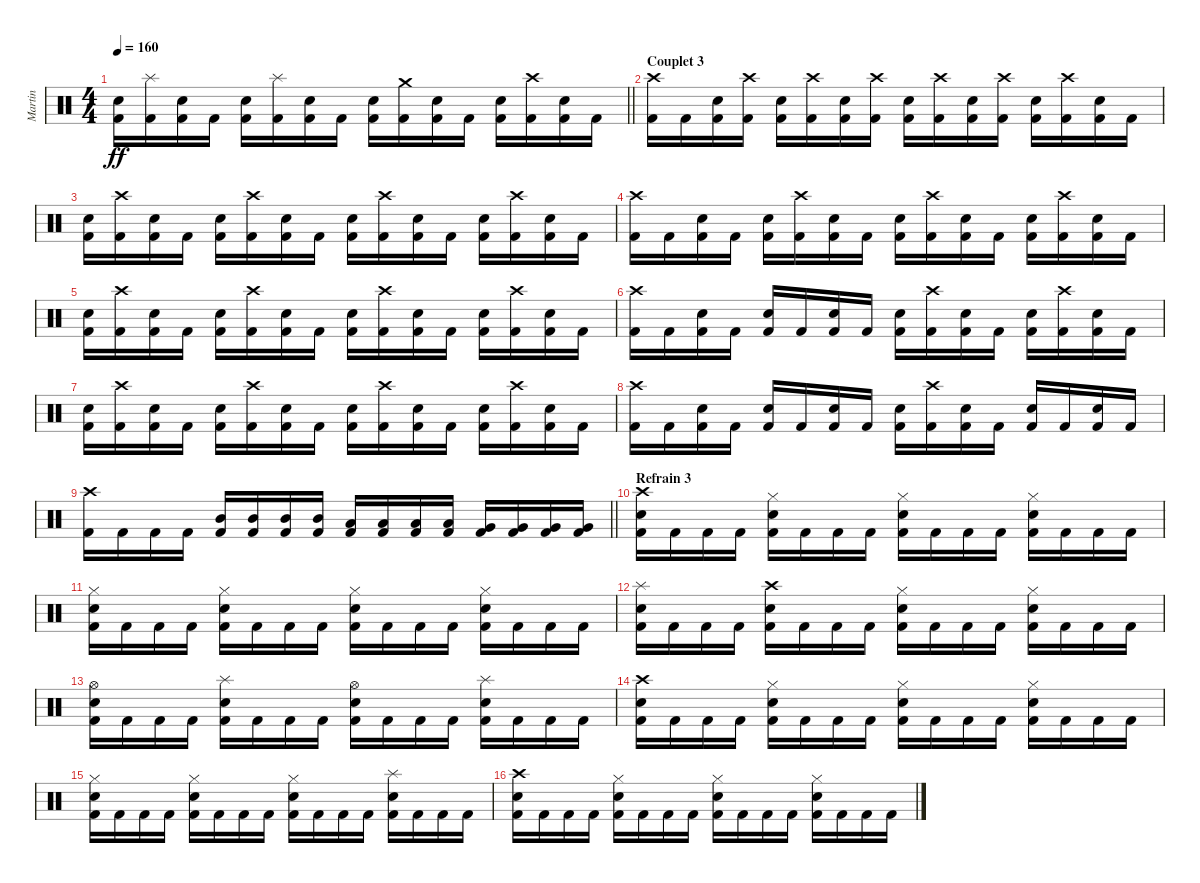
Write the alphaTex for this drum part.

\track ("Martin" "Martin") {instrument percussion}
\staff {score}
\articulation defaults
\ts (4 4)
\tempo 160
\clef neutral
\barLineRight lightlight
\ks c
("Electric Snare (hit)" "Kick (hit) 2").16{dy ff} ("Splash (hit)" "Kick (hit) 2").16 ("Electric Snare (hit)" "Kick (hit) 2").16 "Kick (hit) 2".16 ("Electric Snare (hit)" "Kick (hit) 2").16 ("Splash (hit)" "Kick (hit) 2").16 ("Electric Snare (hit)" "Kick (hit) 2").16 "Kick (hit) 2".16 ("Electric Snare (hit)" "Kick (hit) 2").16 ("Crash medium (hit)" "Kick (hit) 2").16 ("Electric Snare (hit)" "Kick (hit) 2").16 "Kick (hit) 2".16 ("Electric Snare (hit)" "Kick (hit) 2").16 ("Crash high (hit)" "Kick (hit) 2").16 ("Electric Snare (hit)" "Kick (hit) 2").16 "Kick (hit) 2".16 |
\section ("" "Couplet 3")
("Crash high (hit)" "Kick (hit) 2").16 "Kick (hit) 2".16 ("Electric Snare (hit)" "Kick (hit) 2").16 ("Crash high (hit)" "Kick (hit) 2").16 ("Electric Snare (hit)" "Kick (hit) 2").16 ("Crash high (hit)" "Kick (hit) 2").16 ("Electric Snare (hit)" "Kick (hit) 2").16 ("Crash high (hit)" "Kick (hit) 2").16 ("Electric Snare (hit)" "Kick (hit) 2").16 ("Crash high (hit)" "Kick (hit) 2").16 ("Electric Snare (hit)" "Kick (hit) 2").16 ("Crash high (hit)" "Kick (hit) 2").16 ("Electric Snare (hit)" "Kick (hit) 2").16 ("Crash high (hit)" "Kick (hit) 2").16 ("Electric Snare (hit)" "Kick (hit) 2").16 "Kick (hit) 2".16 |
("Electric Snare (hit)" "Kick (hit) 2").16 ("Crash high (hit)" "Kick (hit) 2").16 ("Electric Snare (hit)" "Kick (hit) 2").16 "Kick (hit) 2".16 ("Electric Snare (hit)" "Kick (hit) 2").16 ("Crash high (hit)" "Kick (hit) 2").16 ("Electric Snare (hit)" "Kick (hit) 2").16 "Kick (hit) 2".16 ("Electric Snare (hit)" "Kick (hit) 2").16 ("Crash high (hit)" "Kick (hit) 2").16 ("Electric Snare (hit)" "Kick (hit) 2").16 "Kick (hit) 2".16 ("Electric Snare (hit)" "Kick (hit) 2").16 ("Crash high (hit)" "Kick (hit) 2").16 ("Electric Snare (hit)" "Kick (hit) 2").16 "Kick (hit) 2".16 |
("Crash high (hit)" "Kick (hit) 2").16 "Kick (hit) 2".16 ("Electric Snare (hit)" "Kick (hit) 2").16 "Kick (hit) 2".16 ("Electric Snare (hit)" "Kick (hit) 2").16 ("Crash high (hit)" "Kick (hit) 2").16 ("Electric Snare (hit)" "Kick (hit) 2").16 "Kick (hit) 2".16 ("Electric Snare (hit)" "Kick (hit) 2").16 ("Crash high (hit)" "Kick (hit) 2").16 ("Electric Snare (hit)" "Kick (hit) 2").16 "Kick (hit) 2".16 ("Electric Snare (hit)" "Kick (hit) 2").16 ("Crash high (hit)" "Kick (hit) 2").16 ("Electric Snare (hit)" "Kick (hit) 2").16 "Kick (hit) 2".16 |
("Electric Snare (hit)" "Kick (hit) 2").16 ("Crash high (hit)" "Kick (hit) 2").16 ("Electric Snare (hit)" "Kick (hit) 2").16 "Kick (hit) 2".16 ("Electric Snare (hit)" "Kick (hit) 2").16 ("Crash high (hit)" "Kick (hit) 2").16 ("Electric Snare (hit)" "Kick (hit) 2").16 "Kick (hit) 2".16 ("Electric Snare (hit)" "Kick (hit) 2").16 ("Crash high (hit)" "Kick (hit) 2").16 ("Electric Snare (hit)" "Kick (hit) 2").16 "Kick (hit) 2".16 ("Electric Snare (hit)" "Kick (hit) 2").16 ("Crash high (hit)" "Kick (hit) 2").16 ("Electric Snare (hit)" "Kick (hit) 2").16 "Kick (hit) 2".16 |
("Crash high (hit)" "Kick (hit) 2").16 "Kick (hit) 2".16 ("Electric Snare (hit)" "Kick (hit) 2").16 "Kick (hit) 2".16 ("Electric Snare (hit)" "Kick (hit) 2").16 "Kick (hit) 2".16 ("Electric Snare (hit)" "Kick (hit) 2").16 "Kick (hit) 2".16 ("Electric Snare (hit)" "Kick (hit) 2").16 ("Crash high (hit)" "Kick (hit) 2").16 ("Electric Snare (hit)" "Kick (hit) 2").16 "Kick (hit) 2".16 ("Electric Snare (hit)" "Kick (hit) 2").16 ("Crash high (hit)" "Kick (hit) 2").16 ("Electric Snare (hit)" "Kick (hit) 2").16 "Kick (hit) 2".16 |
("Electric Snare (hit)" "Kick (hit) 2").16 ("Crash high (hit)" "Kick (hit) 2").16 ("Electric Snare (hit)" "Kick (hit) 2").16 "Kick (hit) 2".16 ("Electric Snare (hit)" "Kick (hit) 2").16 ("Crash high (hit)" "Kick (hit) 2").16 ("Electric Snare (hit)" "Kick (hit) 2").16 "Kick (hit) 2".16 ("Electric Snare (hit)" "Kick (hit) 2").16 ("Crash high (hit)" "Kick (hit) 2").16 ("Electric Snare (hit)" "Kick (hit) 2").16 "Kick (hit) 2".16 ("Electric Snare (hit)" "Kick (hit) 2").16 ("Crash high (hit)" "Kick (hit) 2").16 ("Electric Snare (hit)" "Kick (hit) 2").16 "Kick (hit) 2".16 |
("Crash high (hit)" "Kick (hit) 2").16 "Kick (hit) 2".16 ("Electric Snare (hit)" "Kick (hit) 2").16 "Kick (hit) 2".16 ("Electric Snare (hit)" "Kick (hit) 2").16 "Kick (hit) 2".16 ("Electric Snare (hit)" "Kick (hit) 2").16 "Kick (hit) 2".16 ("Electric Snare (hit)" "Kick (hit) 2").16 ("Crash high (hit)" "Kick (hit) 2").16 ("Electric Snare (hit)" "Kick (hit) 2").16 "Kick (hit) 2".16 ("Electric Snare (hit)" "Kick (hit) 2").16 "Kick (hit) 2".16 ("Electric Snare (hit)" "Kick (hit) 2").16 "Kick (hit) 2".16 |
\barLineRight lightlight
("Crash high (hit)" "Kick (hit) 2").16 "Kick (hit) 2".16 "Kick (hit) 2".16 "Kick (hit) 2".16 ("Mid Tom (hit)" "Kick (hit) 2").16 ("Mid Tom (hit)" "Kick (hit) 2").16 ("Mid Tom (hit)" "Kick (hit) 2").16 ("Mid Tom (hit)" "Kick (hit) 2").16 ("Low Tom (hit)" "Kick (hit) 2").16 ("Low Tom (hit)" "Kick (hit) 2").16 ("Low Tom (hit)" "Kick (hit) 2").16 ("Low Tom (hit)" "Kick (hit) 2").16 ("Very Low Tom (hit)" "Kick (hit) 2").16 ("Very Low Tom (hit)" "Kick (hit) 2").16 ("Very Low Tom (hit)" "Kick (hit) 2").16 ("Very Low Tom (hit)" "Kick (hit) 2").16 |
\section ("" "Refrain 3")
("Crash high (hit)" "Electric Snare (hit)" "Kick (hit) 2").16 "Kick (hit) 2".16 "Kick (hit) 2".16 "Kick (hit) 2".16 ("Hi-Hat (closed)" "Electric Snare (hit)" "Kick (hit) 2").16 "Kick (hit) 2".16 "Kick (hit) 2".16 "Kick (hit) 2".16 ("Hi-Hat (closed)" "Electric Snare (hit)" "Kick (hit) 2").16 "Kick (hit) 2".16 "Kick (hit) 2".16 "Kick (hit) 2".16 ("Hi-Hat (closed)" "Electric Snare (hit)" "Kick (hit) 2").16 "Kick (hit) 2".16 "Kick (hit) 2".16 "Kick (hit) 2".16 |
("Hi-Hat (closed)" "Electric Snare (hit)" "Kick (hit) 2").16 "Kick (hit) 2".16 "Kick (hit) 2".16 "Kick (hit) 2".16 ("Hi-Hat (closed)" "Electric Snare (hit)" "Kick (hit) 2").16 "Kick (hit) 2".16 "Kick (hit) 2".16 "Kick (hit) 2".16 ("Hi-Hat (closed)" "Electric Snare (hit)" "Kick (hit) 2").16 "Kick (hit) 2".16 "Kick (hit) 2".16 "Kick (hit) 2".16 ("Hi-Hat (closed)" "Electric Snare (hit)" "Kick (hit) 2").16 "Kick (hit) 2".16 "Kick (hit) 2".16 "Kick (hit) 2".16 |
("Splash (hit)" "Electric Snare (hit)" "Kick (hit) 2").16 "Kick (hit) 2".16 "Kick (hit) 2".16 "Kick (hit) 2".16 ("Crash high (hit)" "Electric Snare (hit)" "Kick (hit) 2").16 "Kick (hit) 2".16 "Kick (hit) 2".16 "Kick (hit) 2".16 ("Hi-Hat (closed)" "Electric Snare (hit)" "Kick (hit) 2").16 "Kick (hit) 2".16 "Kick (hit) 2".16 "Kick (hit) 2".16 ("Hi-Hat (closed)" "Electric Snare (hit)" "Kick (hit) 2").16 "Kick (hit) 2".16 "Kick (hit) 2".16 "Kick (hit) 2".16 |
("Hi-Hat (open)" "Electric Snare (hit)" "Kick (hit) 2").16 "Kick (hit) 2".16 "Kick (hit) 2".16 "Kick (hit) 2".16 ("Splash (hit)" "Electric Snare (hit)" "Kick (hit) 2").16 "Kick (hit) 2".16 "Kick (hit) 2".16 "Kick (hit) 2".16 ("Hi-Hat (open)" "Electric Snare (hit)" "Kick (hit) 2").16 "Kick (hit) 2".16 "Kick (hit) 2".16 "Kick (hit) 2".16 ("Splash (hit)" "Electric Snare (hit)" "Kick (hit) 2").16 "Kick (hit) 2".16 "Kick (hit) 2".16 "Kick (hit) 2".16 |
("Crash high (hit)" "Electric Snare (hit)" "Kick (hit) 2").16 "Kick (hit) 2".16 "Kick (hit) 2".16 "Kick (hit) 2".16 ("Hi-Hat (closed)" "Electric Snare (hit)" "Kick (hit) 2").16 "Kick (hit) 2".16 "Kick (hit) 2".16 "Kick (hit) 2".16 ("Hi-Hat (closed)" "Electric Snare (hit)" "Kick (hit) 2").16 "Kick (hit) 2".16 "Kick (hit) 2".16 "Kick (hit) 2".16 ("Hi-Hat (closed)" "Electric Snare (hit)" "Kick (hit) 2").16 "Kick (hit) 2".16 "Kick (hit) 2".16 "Kick (hit) 2".16 |
("Hi-Hat (closed)" "Electric Snare (hit)" "Kick (hit) 2").16 "Kick (hit) 2".16 "Kick (hit) 2".16 "Kick (hit) 2".16 ("Hi-Hat (closed)" "Electric Snare (hit)" "Kick (hit) 2").16 "Kick (hit) 2".16 "Kick (hit) 2".16 "Kick (hit) 2".16 ("Hi-Hat (closed)" "Electric Snare (hit)" "Kick (hit) 2").16 "Kick (hit) 2".16 "Kick (hit) 2".16 "Kick (hit) 2".16 ("Splash (hit)" "Electric Snare (hit)" "Kick (hit) 2").16 "Kick (hit) 2".16 "Kick (hit) 2".16 "Kick (hit) 2".16 |
("Crash high (hit)" "Electric Snare (hit)" "Kick (hit) 2").16 "Kick (hit) 2".16 "Kick (hit) 2".16 "Kick (hit) 2".16 ("Hi-Hat (closed)" "Electric Snare (hit)" "Kick (hit) 2").16 "Kick (hit) 2".16 "Kick (hit) 2".16 "Kick (hit) 2".16 ("Hi-Hat (closed)" "Electric Snare (hit)" "Kick (hit) 2").16 "Kick (hit) 2".16 "Kick (hit) 2".16 "Kick (hit) 2".16 ("Hi-Hat (closed)" "Electric Snare (hit)" "Kick (hit) 2").16 "Kick (hit) 2".16 "Kick (hit) 2".16 "Kick (hit) 2".16
